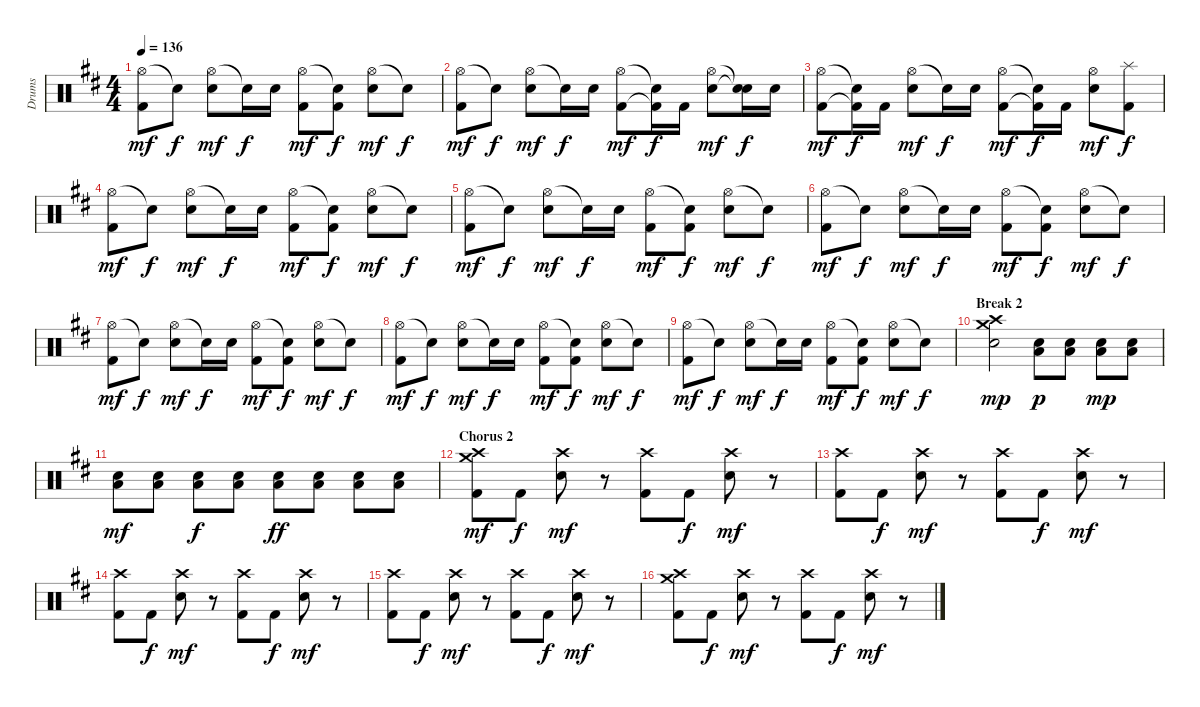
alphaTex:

\track ("Drums" "Drums") {instrument percussion}
\staff {score}
\articulation defaults
\ts (4 4)
\tempo 136
\clef neutral
\ks d
("Hi-Hat (open)" "Kick (hit) 2").8{dy mf} "Snare (hit)"{t}.8{dy f} ("Hi-Hat (open)" "Electric Snare (hit)").8{dy mf} "Snare (hit)"{t}.16{dy f} "Electric Snare (hit)".16 ("Hi-Hat (open)" "Kick (hit) 2").8{dy mf} ("Snare (hit)"{t} "Kick (hit) 2").8{dy f} ("Hi-Hat (open)" "Electric Snare (hit)").8{dy mf} "Snare (hit)"{t}.8{dy f} |
("Hi-Hat (open)" "Kick (hit) 2").8{dy mf} "Snare (hit)"{t}.8{dy f} ("Hi-Hat (open)" "Electric Snare (hit)").8{dy mf} "Snare (hit)"{t}.16{dy f} "Electric Snare (hit)".16 ("Hi-Hat (open)" "Kick (hit) 2").8{dy mf} ("Snare (hit)"{t} "Kick (hit) 2"{t}).16{dy f} "Kick (hit) 2".16 ("Hi-Hat (open)" "Electric Snare (hit)").8{dy mf} ("Snare (hit)"{t} "Snare (hit)"{t}).16{dy f} "Electric Snare (hit)".16 |
("Hi-Hat (open)" "Kick (hit) 2").8{dy mf} ("Snare (hit)"{t} "Kick (hit) 2"{t}).16{dy f} "Kick (hit) 2".16 ("Hi-Hat (open)" "Electric Snare (hit)").8{dy mf} "Snare (hit)"{t}.16{dy f} "Electric Snare (hit)".16 ("Hi-Hat (open)" "Kick (hit) 2").8{dy mf} ("Snare (hit)"{t} "Kick (hit) 2"{t}).16{dy f} "Kick (hit) 2".16 ("Hi-Hat (open)" "Electric Snare (hit)").8{dy mf} ("Splash (hit)" "Kick (hit) 2").8{dy f} |
("Hi-Hat (open)" "Kick (hit) 2").8{dy mf} "Snare (hit)"{t}.8{dy f} ("Hi-Hat (open)" "Electric Snare (hit)").8{dy mf} "Snare (hit)"{t}.16{dy f} "Electric Snare (hit)".16 ("Hi-Hat (open)" "Kick (hit) 2").8{dy mf} ("Snare (hit)"{t} "Kick (hit) 2").8{dy f} ("Hi-Hat (open)" "Electric Snare (hit)").8{dy mf} "Snare (hit)"{t}.8{dy f} |
("Hi-Hat (open)" "Kick (hit) 2").8{dy mf} "Snare (hit)"{t}.8{dy f} ("Hi-Hat (open)" "Electric Snare (hit)").8{dy mf} "Snare (hit)"{t}.16{dy f} "Electric Snare (hit)".16 ("Hi-Hat (open)" "Kick (hit) 2").8{dy mf} ("Snare (hit)"{t} "Kick (hit) 2").8{dy f} ("Hi-Hat (open)" "Electric Snare (hit)").8{dy mf} "Snare (hit)"{t}.8{dy f} |
("Hi-Hat (open)" "Kick (hit) 2").8{dy mf} "Snare (hit)"{t}.8{dy f} ("Hi-Hat (open)" "Electric Snare (hit)").8{dy mf} "Snare (hit)"{t}.16{dy f} "Electric Snare (hit)".16 ("Hi-Hat (open)" "Kick (hit) 2").8{dy mf} ("Snare (hit)"{t} "Kick (hit) 2").8{dy f} ("Hi-Hat (open)" "Electric Snare (hit)").8{dy mf} "Snare (hit)"{t}.8{dy f} |
("Hi-Hat (open)" "Kick (hit) 2").8{dy mf} "Snare (hit)"{t}.8{dy f} ("Hi-Hat (open)" "Electric Snare (hit)").8{dy mf} "Snare (hit)"{t}.16{dy f} "Electric Snare (hit)".16 ("Hi-Hat (open)" "Kick (hit) 2").8{dy mf} ("Snare (hit)"{t} "Kick (hit) 2").8{dy f} ("Hi-Hat (open)" "Electric Snare (hit)").8{dy mf} "Snare (hit)"{t}.8{dy f} |
("Hi-Hat (open)" "Kick (hit) 2").8{dy mf} "Snare (hit)"{t}.8{dy f} ("Hi-Hat (open)" "Electric Snare (hit)").8{dy mf} "Snare (hit)"{t}.16{dy f} "Electric Snare (hit)".16 ("Hi-Hat (open)" "Kick (hit) 2").8{dy mf} ("Snare (hit)"{t} "Kick (hit) 2").8{dy f} ("Hi-Hat (open)" "Electric Snare (hit)").8{dy mf} "Snare (hit)"{t}.8{dy f} |
("Hi-Hat (open)" "Kick (hit) 2").8{dy mf} "Snare (hit)"{t}.8{dy f} ("Hi-Hat (open)" "Electric Snare (hit)").8{dy mf} "Snare (hit)"{t}.16{dy f} "Electric Snare (hit)".16 ("Hi-Hat (open)" "Kick (hit) 2").8{dy mf} ("Snare (hit)"{t} "Kick (hit) 2").8{dy f} ("Hi-Hat (open)" "Electric Snare (hit)").8{dy mf} "Snare (hit)"{t}.8{dy f} |
\section ("" "Break 2")
("Crash medium (hit)" "Crash high (hit)" "Electric Snare (hit)").2{dy mp} ("Low Tom (hit)" "Electric Snare (hit)").8{dy p} ("Low Tom (hit)" "Electric Snare (hit)").8 ("Low Tom (hit)" "Electric Snare (hit)").8{dy mp} ("Low Tom (hit)" "Electric Snare (hit)").8 |
("Low Tom (hit)" "Electric Snare (hit)").8{dy mf} ("Low Tom (hit)" "Electric Snare (hit)").8 ("Low Tom (hit)" "Electric Snare (hit)").8{dy f} ("Low Tom (hit)" "Electric Snare (hit)").8 ("Low Tom (hit)" "Electric Snare (hit)").8{dy ff} ("Low Tom (hit)" "Electric Snare (hit)").8 ("Low Tom (hit)" "Electric Snare (hit)").8 ("Low Tom (hit)" "Electric Snare (hit)").8 |
\section ("" "Chorus 2")
("Crash medium (hit)" "Crash high (hit)" "Kick (hit) 2").8{dy mf} "Kick (hit) 2".8{dy f} ("Crash high (hit)" "Electric Snare (hit)").8{dy mf} r.8 ("Crash high (hit)" "Kick (hit) 2").8 "Kick (hit) 2".8{dy f} ("Crash high (hit)" "Electric Snare (hit)").8{dy mf} r.8 |
("Crash high (hit)" "Kick (hit) 2").8 "Kick (hit) 2".8{dy f} ("Crash high (hit)" "Electric Snare (hit)").8{dy mf} r.8 ("Crash high (hit)" "Kick (hit) 2").8 "Kick (hit) 2".8{dy f} ("Crash high (hit)" "Electric Snare (hit)").8{dy mf} r.8 |
("Crash high (hit)" "Kick (hit) 2").8 "Kick (hit) 2".8{dy f} ("Crash high (hit)" "Electric Snare (hit)").8{dy mf} r.8 ("Crash high (hit)" "Kick (hit) 2").8 "Kick (hit) 2".8{dy f} ("Crash high (hit)" "Electric Snare (hit)").8{dy mf} r.8 |
("Crash high (hit)" "Kick (hit) 2").8 "Kick (hit) 2".8{dy f} ("Crash high (hit)" "Electric Snare (hit)").8{dy mf} r.8 ("Crash high (hit)" "Kick (hit) 2").8 "Kick (hit) 2".8{dy f} ("Crash high (hit)" "Electric Snare (hit)").8{dy mf} r.8 |
("Crash medium (hit)" "Crash high (hit)" "Kick (hit) 2").8 "Kick (hit) 2".8{dy f} ("Crash high (hit)" "Electric Snare (hit)").8{dy mf} r.8 ("Crash high (hit)" "Kick (hit) 2").8 "Kick (hit) 2".8{dy f} ("Crash high (hit)" "Electric Snare (hit)").8{dy mf} r.8
